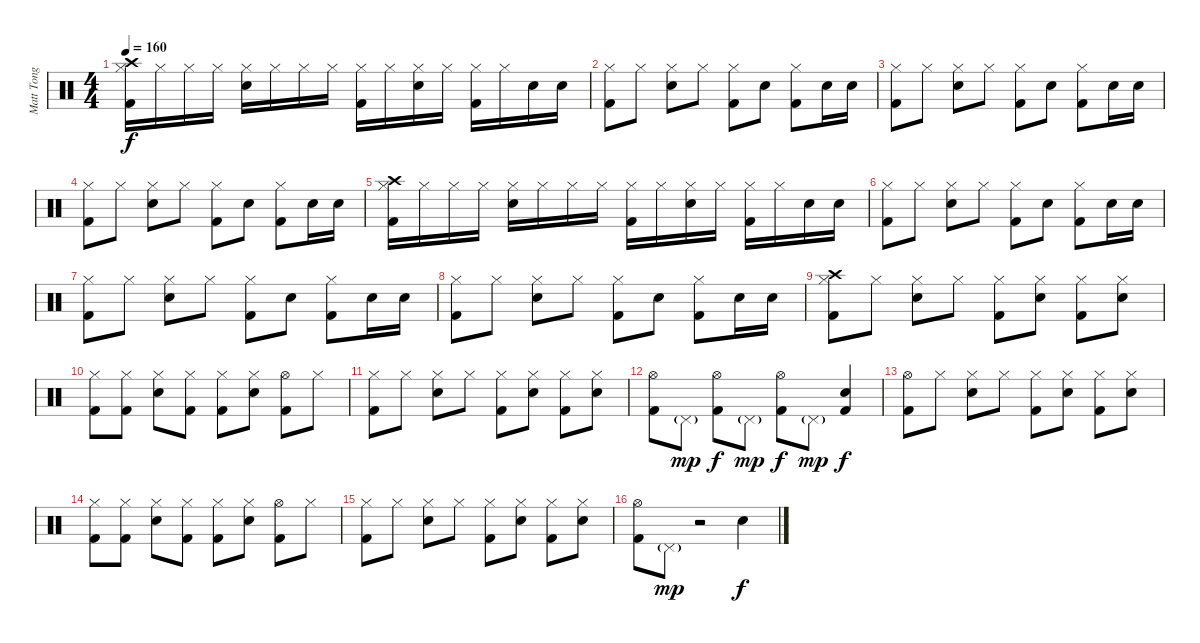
\track ("Matt Tong" "Matt Tong") {instrument percussion}
\staff {score}
\articulation defaults
\ts (4 4)
\tempo 160
\clef neutral
\ks c
("Crash high (hit)" "Hi-Hat (closed)" "Kick (hit) 2").16{dy f} "Hi-Hat (closed)".16 "Hi-Hat (closed)".16 "Hi-Hat (closed)".16 ("Hi-Hat (closed)" "Electric Snare (hit)").16 "Hi-Hat (closed)".16 "Hi-Hat (closed)".16 "Hi-Hat (closed)".16 ("Hi-Hat (closed)" "Kick (hit) 2").16 "Hi-Hat (closed)".16 ("Hi-Hat (closed)" "Electric Snare (hit)").16 "Hi-Hat (closed)".16 ("Hi-Hat (closed)" "Kick (hit) 2").16 "Hi-Hat (closed)".16 "Electric Snare (hit)".16 "Electric Snare (hit)".16 |
("Hi-Hat (closed)" "Kick (hit) 2").8 "Hi-Hat (closed)".8 ("Hi-Hat (closed)" "Electric Snare (hit)").8 "Hi-Hat (closed)".8 ("Hi-Hat (closed)" "Kick (hit) 2").8 "Electric Snare (hit)".8 ("Hi-Hat (closed)" "Kick (hit) 2").8 "Electric Snare (hit)".16 "Electric Snare (hit)".16 |
("Hi-Hat (closed)" "Kick (hit) 2").8 "Hi-Hat (closed)".8 ("Hi-Hat (closed)" "Electric Snare (hit)").8 "Hi-Hat (closed)".8 ("Hi-Hat (closed)" "Kick (hit) 2").8 "Electric Snare (hit)".8 ("Hi-Hat (closed)" "Kick (hit) 2").8 "Electric Snare (hit)".16 "Electric Snare (hit)".16 |
("Hi-Hat (closed)" "Kick (hit) 2").8 "Hi-Hat (closed)".8 ("Hi-Hat (closed)" "Electric Snare (hit)").8 "Hi-Hat (closed)".8 ("Hi-Hat (closed)" "Kick (hit) 2").8 "Electric Snare (hit)".8 ("Hi-Hat (closed)" "Kick (hit) 2").8 "Electric Snare (hit)".16 "Electric Snare (hit)".16 |
("Crash high (hit)" "Hi-Hat (closed)" "Kick (hit) 2").16 "Hi-Hat (closed)".16 "Hi-Hat (closed)".16 "Hi-Hat (closed)".16 ("Hi-Hat (closed)" "Electric Snare (hit)").16 "Hi-Hat (closed)".16 "Hi-Hat (closed)".16 "Hi-Hat (closed)".16 ("Hi-Hat (closed)" "Kick (hit) 2").16 "Hi-Hat (closed)".16 ("Hi-Hat (closed)" "Electric Snare (hit)").16 "Hi-Hat (closed)".16 ("Hi-Hat (closed)" "Kick (hit) 2").16 "Hi-Hat (closed)".16 "Electric Snare (hit)".16 "Electric Snare (hit)".16 |
("Hi-Hat (closed)" "Kick (hit) 2").8 "Hi-Hat (closed)".8 ("Hi-Hat (closed)" "Electric Snare (hit)").8 "Hi-Hat (closed)".8 ("Hi-Hat (closed)" "Kick (hit) 2").8 "Electric Snare (hit)".8 ("Hi-Hat (closed)" "Kick (hit) 2").8 "Electric Snare (hit)".16 "Electric Snare (hit)".16 |
("Hi-Hat (closed)" "Kick (hit) 2").8 "Hi-Hat (closed)".8 ("Hi-Hat (closed)" "Electric Snare (hit)").8 "Hi-Hat (closed)".8 ("Hi-Hat (closed)" "Kick (hit) 2").8 "Electric Snare (hit)".8 ("Hi-Hat (closed)" "Kick (hit) 2").8 "Electric Snare (hit)".16 "Electric Snare (hit)".16 |
("Hi-Hat (closed)" "Kick (hit) 2").8 "Hi-Hat (closed)".8 ("Hi-Hat (closed)" "Electric Snare (hit)").8 "Hi-Hat (closed)".8 ("Hi-Hat (closed)" "Kick (hit) 2").8 "Electric Snare (hit)".8 ("Hi-Hat (closed)" "Kick (hit) 2").8 "Electric Snare (hit)".16 "Electric Snare (hit)".16 |
("Crash high (hit)" "Hi-Hat (closed)" "Kick (hit) 2").8 "Hi-Hat (closed)".8 ("Hi-Hat (closed)" "Snare (hit) 2").8 "Hi-Hat (closed)".8 ("Hi-Hat (closed)" "Kick (hit) 2").8 ("Hi-Hat (closed)" "Snare (hit) 2").8 ("Hi-Hat (closed)" "Kick (hit) 2").8 ("Hi-Hat (closed)" "Snare (hit) 2").8 |
("Hi-Hat (closed)" "Kick (hit) 2").8 ("Hi-Hat (closed)" "Kick (hit) 2").8 ("Hi-Hat (closed)" "Snare (hit) 2").8 ("Hi-Hat (closed)" "Kick (hit) 2").8 ("Hi-Hat (closed)" "Kick (hit) 2").8 ("Hi-Hat (closed)" "Snare (hit) 2").8 ("Hi-Hat (open)" "Kick (hit) 2").8 "Hi-Hat (closed)".8 |
("Hi-Hat (closed)" "Kick (hit) 2").8 "Hi-Hat (closed)".8 ("Hi-Hat (closed)" "Snare (hit) 2").8 "Hi-Hat (closed)".8 ("Hi-Hat (closed)" "Kick (hit) 2").8 ("Hi-Hat (closed)" "Snare (hit) 2").8 ("Hi-Hat (closed)" "Kick (hit) 2").8 ("Hi-Hat (closed)" "Snare (hit) 2").8 |
("Hi-Hat (open)" "Kick (hit) 2").8 "Pedal Hi-Hat (hit)"{g}.8{dy mp} ("Hi-Hat (open)" "Kick (hit) 2").8{dy f} "Pedal Hi-Hat (hit)"{g}.8{dy mp} ("Hi-Hat (open)" "Kick (hit) 2").8{dy f} "Pedal Hi-Hat (hit)"{g}.8{dy mp} ("Snare (hit) 2" "Kick (hit) 2").4{dy f} |
("Hi-Hat (open)" "Kick (hit) 2").8 "Hi-Hat (closed)".8 ("Hi-Hat (closed)" "Snare (hit) 2").8 "Hi-Hat (closed)".8 ("Hi-Hat (closed)" "Kick (hit) 2").8 ("Hi-Hat (closed)" "Snare (hit) 2").8 ("Hi-Hat (closed)" "Kick (hit) 2").8 ("Hi-Hat (closed)" "Snare (hit) 2").8 |
("Hi-Hat (closed)" "Kick (hit) 2").8 ("Hi-Hat (closed)" "Kick (hit) 2").8 ("Hi-Hat (closed)" "Snare (hit) 2").8 ("Hi-Hat (closed)" "Kick (hit) 2").8 ("Hi-Hat (closed)" "Kick (hit) 2").8 ("Hi-Hat (closed)" "Snare (hit) 2").8 ("Hi-Hat (open)" "Kick (hit) 2").8 "Hi-Hat (closed)".8 |
("Hi-Hat (closed)" "Kick (hit) 2").8 "Hi-Hat (closed)".8 ("Hi-Hat (closed)" "Snare (hit) 2").8 "Hi-Hat (closed)".8 ("Hi-Hat (closed)" "Kick (hit) 2").8 ("Hi-Hat (closed)" "Snare (hit) 2").8 ("Hi-Hat (closed)" "Kick (hit) 2").8 ("Hi-Hat (closed)" "Snare (hit) 2").8 |
("Hi-Hat (open)" "Kick (hit) 2").8 "Pedal Hi-Hat (hit)"{g}.8{dy mp} r.2 "Snare (hit) 2".4{dy f}
